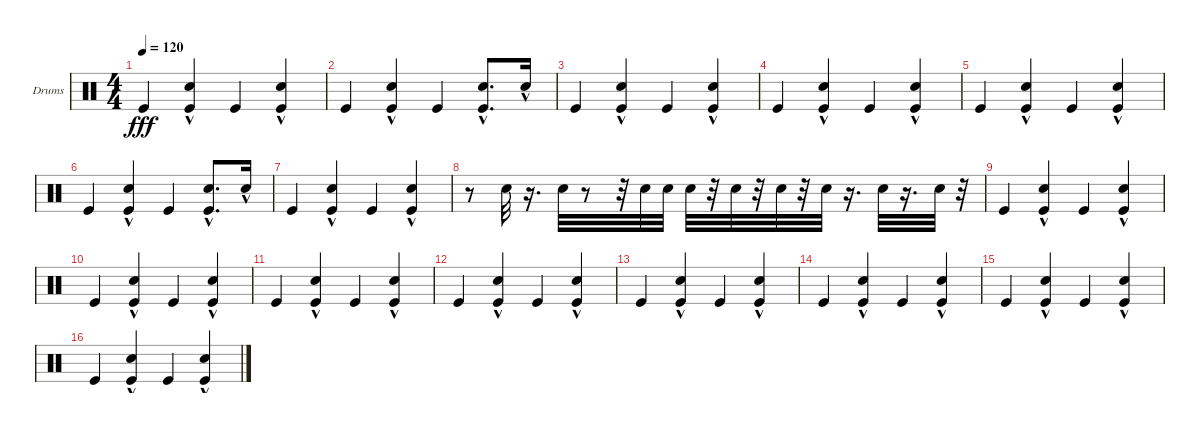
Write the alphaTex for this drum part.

\defaultSystemsLayout 4
\bracketExtendMode groupsimilarinstruments
\firstSystemTrackNameOrientation horizontal
\otherSystemsTrackNameOrientation horizontal
\track ("Drumkit" "Drums") {instrument percussion}
\staff {score}
\articulation defaults
\ts (4 4)
\tempo 120
\clef neutral
\scale
0.333333
\ks c "Kick (hit)".4{dy fff}
("Kick (hit)" "Snare (hit) 2"{hac}).4 "Kick (hit)".4 ("Kick (hit)" "Snare (hit) 2"{hac}).4 |
\scale
0.333333 "Kick (hit)".4 ("Kick (hit)" "Snare (hit) 2"{hac}).4 "Kick (hit)".4 ("Kick (hit)" "Snare (hit) 2"{hac}).8{d} "Snare (hit) 2"{hac}.16 |
\scale
0.333333 "Kick (hit)".4 ("Kick (hit)" "Snare (hit) 2"{hac}).4 "Kick (hit)".4 ("Kick (hit)" "Snare (hit) 2"{hac}).4 |
\scale
0.333333 "Kick (hit)".4 ("Kick (hit)" "Snare (hit) 2"{hac}).4 "Kick (hit)".4 ("Kick (hit)" "Snare (hit) 2"{hac}).4 |
\scale
0.333333 "Kick (hit)".4 ("Kick (hit)" "Snare (hit) 2"{hac}).4 "Kick (hit)".4 ("Kick (hit)" "Snare (hit) 2"{hac}).4 |
\scale
0.333333 "Kick (hit)".4 ("Kick (hit)" "Snare (hit) 2"{hac}).4 "Kick (hit)".4 ("Kick (hit)" "Snare (hit) 2"{hac}).8{d} "Snare (hit) 2"{hac}.16 |
\scale
0.333333 "Kick (hit)".4 ("Kick (hit)" "Snare (hit) 2"{hac}).4 "Kick (hit)".4 ("Kick (hit)" "Snare (hit) 2"{hac}).4 |
\scale
0.333333 r.8 "Snare (hit) 2".32 r.16{d} "Snare (hit) 2".32 r.8 r.32 "Snare (hit) 2".32 "Snare (hit) 2".32 "Snare (hit) 2".32 r.32 "Snare (hit) 2".32 r.32 "Snare (hit) 2".32 r.32 "Snare (hit) 2".32 r.16{d} "Snare (hit) 2".32 r.16{d} "Snare (hit) 2".32 r.32 |
\scale
0.333333 "Kick (hit)".4 ("Kick (hit)" "Snare (hit) 2"{hac}).4 "Kick (hit)".4 ("Kick (hit)" "Snare (hit) 2"{hac}).4 |
\scale
0.333333 "Kick (hit)".4 ("Kick (hit)" "Snare (hit) 2"{hac}).4 "Kick (hit)".4 ("Kick (hit)" "Snare (hit) 2"{hac}).4 |
\scale
0.333333 "Kick (hit)".4 ("Kick (hit)" "Snare (hit) 2"{hac}).4 "Kick (hit)".4 ("Kick (hit)" "Snare (hit) 2"{hac}).4 |
\scale
0.333333 "Kick (hit)".4 ("Kick (hit)" "Snare (hit) 2"{hac}).4 "Kick (hit)".4 ("Kick (hit)" "Snare (hit) 2"{hac}).4 |
\scale
0.333333 "Kick (hit)".4 ("Kick (hit)" "Snare (hit) 2"{hac}).4 "Kick (hit)".4 ("Kick (hit)" "Snare (hit) 2"{hac}).4 |
\scale
0.333333 "Kick (hit)".4 ("Kick (hit)" "Snare (hit) 2"{hac}).4 "Kick (hit)".4 ("Kick (hit)" "Snare (hit) 2"{hac}).4 |
\scale
0.333333 "Kick (hit)".4 ("Kick (hit)" "Snare (hit) 2"{hac}).4 "Kick (hit)".4 ("Kick (hit)" "Snare (hit) 2"{hac}).4 |
\scale
0.333333 "Kick (hit)".4 ("Kick (hit)" "Snare (hit) 2"{hac}).4 "Kick (hit)".4 ("Kick (hit)" "Snare (hit) 2"{hac}).4
